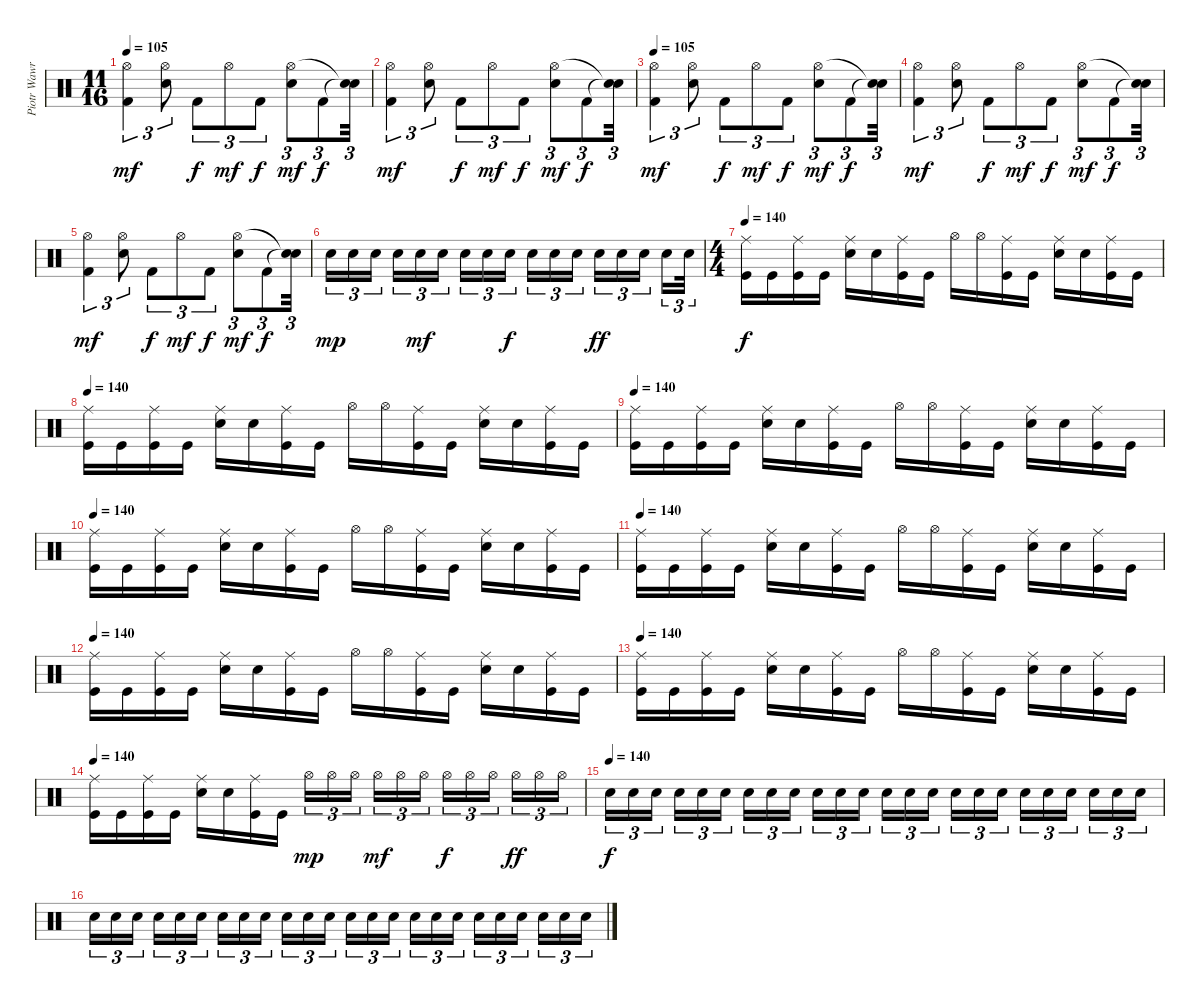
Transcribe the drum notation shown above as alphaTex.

\track ("Piotr Wawrzeniunk (drums)" "Piotr Wawr") {instrument percussion}
\staff {score}
\articulation defaults
\ts (11 16)
\tempo 105
\clef neutral
\ks c
("Kick (hit) 2" "Hi-Hat (open)").4{tu (3 2) dy mf} ("Electric Snare (hit)" "Hi-Hat (open)").8{tu (3 2)} "Kick (hit) 2".8{tu (3 2) dy f} "Hi-Hat (open)".8{tu (3 2) dy mf} "Kick (hit) 2".8{tu (3 2) dy f} ("Electric Snare (hit)" "Hi-Hat (open)").8{tu (3 2) dy mf} "Kick (hit) 2".8{tu (3 2) dy f} ("Snare (hit)"{t} "Snare (hit)"{t}).32{tu (3 2)} |
("Kick (hit) 2" "Hi-Hat (open)").4{tu (3 2) dy mf} ("Electric Snare (hit)" "Hi-Hat (open)").8{tu (3 2)} "Kick (hit) 2".8{tu (3 2) dy f} "Hi-Hat (open)".8{tu (3 2) dy mf} "Kick (hit) 2".8{tu (3 2) dy f} ("Electric Snare (hit)" "Hi-Hat (open)").8{tu (3 2) dy mf} "Kick (hit) 2".8{tu (3 2) dy f} ("Snare (hit)"{t} "Snare (hit)"{t}).32{tu (3 2)} |
\tempo 105
("Kick (hit) 2" "Hi-Hat (open)").4{tu (3 2) dy mf} ("Electric Snare (hit)" "Hi-Hat (open)").8{tu (3 2)} "Kick (hit) 2".8{tu (3 2) dy f} "Hi-Hat (open)".8{tu (3 2) dy mf} "Kick (hit) 2".8{tu (3 2) dy f} ("Electric Snare (hit)" "Hi-Hat (open)").8{tu (3 2) dy mf} "Kick (hit) 2".8{tu (3 2) dy f} ("Snare (hit)"{t} "Snare (hit)"{t}).32{tu (3 2)} |
("Kick (hit) 2" "Hi-Hat (open)").4{tu (3 2) dy mf} ("Electric Snare (hit)" "Hi-Hat (open)").8{tu (3 2)} "Kick (hit) 2".8{tu (3 2) dy f} "Hi-Hat (open)".8{tu (3 2) dy mf} "Kick (hit) 2".8{tu (3 2) dy f} ("Electric Snare (hit)" "Hi-Hat (open)").8{tu (3 2) dy mf} "Kick (hit) 2".8{tu (3 2) dy f} ("Snare (hit)"{t} "Snare (hit)"{t}).32{tu (3 2)} |
("Kick (hit) 2" "Hi-Hat (open)").4{tu (3 2) dy mf} ("Electric Snare (hit)" "Hi-Hat (open)").8{tu (3 2)} "Kick (hit) 2".8{tu (3 2) dy f} "Hi-Hat (open)".8{tu (3 2) dy mf} "Kick (hit) 2".8{tu (3 2) dy f} ("Electric Snare (hit)" "Hi-Hat (open)").8{tu (3 2) dy mf} "Kick (hit) 2".8{tu (3 2) dy f} ("Snare (hit)"{t} "Snare (hit)"{t}).32{tu (3 2)} |
"Electric Snare (hit)".16{tu (3 2) dy mp} "Electric Snare (hit)".16{tu (3 2)} "Electric Snare (hit)".16{tu (3 2)} "Electric Snare (hit)".16{tu (3 2)} "Electric Snare (hit)".16{tu (3 2) dy mf} "Electric Snare (hit)".16{tu (3 2)} "Electric Snare (hit)".16{tu (3 2)} "Electric Snare (hit)".16{tu (3 2)} "Electric Snare (hit)".16{tu (3 2) dy f} "Electric Snare (hit)".16{tu (3 2)} "Electric Snare (hit)".16{tu (3 2)} "Electric Snare (hit)".16{tu (3 2)} "Electric Snare (hit)".16{tu (3 2) dy ff} "Electric Snare (hit)".16{tu (3 2)} "Electric Snare (hit)".16{tu (3 2)} "Electric Snare (hit)".16{tu (3 2)} "Electric Snare (hit)".32{tu (3 2)} |
\ts (4 4)
\tempo 140
("Kick (hit)" "Ride (middle)").16{dy f} "Kick (hit)".16 ("Kick (hit)" "Ride (middle)").16 "Kick (hit)".16 ("Electric Snare (hit)" "Ride (middle)").16 "Electric Snare (hit)".16 ("Kick (hit)" "Ride (middle)").16 "Kick (hit)".16 "Hi-Hat (open)".16 "Hi-Hat (open)".16 ("Kick (hit)" "Ride (middle)").16 "Kick (hit)".16 ("Electric Snare (hit)" "Ride (middle)").16 "Electric Snare (hit)".16 ("Kick (hit)" "Ride (middle)").16 "Kick (hit)".16 |
\tempo 140
("Kick (hit)" "Ride (middle)").16 "Kick (hit)".16 ("Kick (hit)" "Ride (middle)").16 "Kick (hit)".16 ("Electric Snare (hit)" "Ride (middle)").16 "Electric Snare (hit)".16 ("Kick (hit)" "Ride (middle)").16 "Kick (hit)".16 "Hi-Hat (open)".16 "Hi-Hat (open)".16 ("Kick (hit)" "Ride (middle)").16 "Kick (hit)".16 ("Electric Snare (hit)" "Ride (middle)").16 "Electric Snare (hit)".16 ("Kick (hit)" "Ride (middle)").16 "Kick (hit)".16 |
\tempo 140
("Kick (hit)" "Ride (middle)").16 "Kick (hit)".16 ("Kick (hit)" "Ride (middle)").16 "Kick (hit)".16 ("Electric Snare (hit)" "Ride (middle)").16 "Electric Snare (hit)".16 ("Kick (hit)" "Ride (middle)").16 "Kick (hit)".16 "Hi-Hat (open)".16 "Hi-Hat (open)".16 ("Kick (hit)" "Ride (middle)").16 "Kick (hit)".16 ("Electric Snare (hit)" "Ride (middle)").16 "Electric Snare (hit)".16 ("Kick (hit)" "Ride (middle)").16 "Kick (hit)".16 |
\tempo 140
("Kick (hit)" "Ride (middle)").16 "Kick (hit)".16 ("Kick (hit)" "Ride (middle)").16 "Kick (hit)".16 ("Electric Snare (hit)" "Ride (middle)").16 "Electric Snare (hit)".16 ("Kick (hit)" "Ride (middle)").16 "Kick (hit)".16 "Hi-Hat (open)".16 "Hi-Hat (open)".16 ("Kick (hit)" "Ride (middle)").16 "Kick (hit)".16 ("Electric Snare (hit)" "Ride (middle)").16 "Electric Snare (hit)".16 ("Kick (hit)" "Ride (middle)").16 "Kick (hit)".16 |
\tempo 140
("Kick (hit)" "Ride (middle)").16 "Kick (hit)".16 ("Kick (hit)" "Ride (middle)").16 "Kick (hit)".16 ("Electric Snare (hit)" "Ride (middle)").16 "Electric Snare (hit)".16 ("Kick (hit)" "Ride (middle)").16 "Kick (hit)".16 "Hi-Hat (open)".16 "Hi-Hat (open)".16 ("Kick (hit)" "Ride (middle)").16 "Kick (hit)".16 ("Electric Snare (hit)" "Ride (middle)").16 "Electric Snare (hit)".16 ("Kick (hit)" "Ride (middle)").16 "Kick (hit)".16 |
\tempo 140
("Kick (hit)" "Ride (middle)").16 "Kick (hit)".16 ("Kick (hit)" "Ride (middle)").16 "Kick (hit)".16 ("Electric Snare (hit)" "Ride (middle)").16 "Electric Snare (hit)".16 ("Kick (hit)" "Ride (middle)").16 "Kick (hit)".16 "Hi-Hat (open)".16 "Hi-Hat (open)".16 ("Kick (hit)" "Ride (middle)").16 "Kick (hit)".16 ("Electric Snare (hit)" "Ride (middle)").16 "Electric Snare (hit)".16 ("Kick (hit)" "Ride (middle)").16 "Kick (hit)".16 |
\tempo 140
("Kick (hit)" "Ride (middle)").16 "Kick (hit)".16 ("Kick (hit)" "Ride (middle)").16 "Kick (hit)".16 ("Electric Snare (hit)" "Ride (middle)").16 "Electric Snare (hit)".16 ("Kick (hit)" "Ride (middle)").16 "Kick (hit)".16 "Hi-Hat (open)".16 "Hi-Hat (open)".16 ("Kick (hit)" "Ride (middle)").16 "Kick (hit)".16 ("Electric Snare (hit)" "Ride (middle)").16 "Electric Snare (hit)".16 ("Kick (hit)" "Ride (middle)").16 "Kick (hit)".16 |
\tempo 140
("Kick (hit)" "Ride (middle)").16 "Kick (hit)".16 ("Kick (hit)" "Ride (middle)").16 "Kick (hit)".16 ("Electric Snare (hit)" "Ride (middle)").16 "Electric Snare (hit)".16 ("Kick (hit)" "Ride (middle)").16 "Kick (hit)".16 "Hi-Hat (open)".16{tu (3 2) dy mp} "Hi-Hat (open)".16{tu (3 2)} "Hi-Hat (open)".16{tu (3 2)} "Hi-Hat (open)".16{tu (3 2) dy mf} "Hi-Hat (open)".16{tu (3 2)} "Hi-Hat (open)".16{tu (3 2)} "Hi-Hat (open)".16{tu (3 2) dy f} "Hi-Hat (open)".16{tu (3 2)} "Hi-Hat (open)".16{tu (3 2)} "Hi-Hat (open)".16{tu (3 2) dy ff} "Hi-Hat (open)".16{tu (3 2)} "Hi-Hat (open)".16{tu (3 2)} |
\tempo (140)
"Electric Snare (hit)".16{tu (3 2) dy f volume 11} "Electric Snare (hit)".16{tu (3 2)} "Electric Snare (hit)".16{tu (3 2)} "Electric Snare (hit)".16{tu (3 2)} "Electric Snare (hit)".16{tu (3 2)} "Electric Snare (hit)".16{tu (3 2)} "Electric Snare (hit)".16{tu (3 2)} "Electric Snare (hit)".16{tu (3 2)} "Electric Snare (hit)".16{tu (3 2)} "Electric Snare (hit)".16{tu (3 2)} "Electric Snare (hit)".16{tu (3 2)} "Electric Snare (hit)".16{tu (3 2)} "Electric Snare (hit)".16{tu (3 2)} "Electric Snare (hit)".16{tu (3 2)} "Electric Snare (hit)".16{tu (3 2)} "Electric Snare (hit)".16{tu (3 2)} "Electric Snare (hit)".16{tu (3 2)} "Electric Snare (hit)".16{tu (3 2)} "Electric Snare (hit)".16{tu (3 2)} "Electric Snare (hit)".16{tu (3 2)} "Electric Snare (hit)".16{tu (3 2)} "Electric Snare (hit)".16{tu (3 2)} "Electric Snare (hit)".16{tu (3 2)} "Electric Snare (hit)".16{tu (3 2)} |
"Electric Snare (hit)".16{tu (3 2)} "Electric Snare (hit)".16{tu (3 2)} "Electric Snare (hit)".16{tu (3 2)} "Electric Snare (hit)".16{tu (3 2)} "Electric Snare (hit)".16{tu (3 2)} "Electric Snare (hit)".16{tu (3 2)} "Electric Snare (hit)".16{tu (3 2)} "Electric Snare (hit)".16{tu (3 2)} "Electric Snare (hit)".16{tu (3 2)} "Electric Snare (hit)".16{tu (3 2)} "Electric Snare (hit)".16{tu (3 2)} "Electric Snare (hit)".16{tu (3 2)} "Electric Snare (hit)".16{tu (3 2)} "Electric Snare (hit)".16{tu (3 2)} "Electric Snare (hit)".16{tu (3 2)} "Electric Snare (hit)".16{tu (3 2)} "Electric Snare (hit)".16{tu (3 2)} "Electric Snare (hit)".16{tu (3 2)} "Electric Snare (hit)".16{tu (3 2)} "Electric Snare (hit)".16{tu (3 2)} "Electric Snare (hit)".16{tu (3 2)} "Electric Snare (hit)".16{tu (3 2)} "Electric Snare (hit)".16{tu (3 2)} "Electric Snare (hit)".16{tu (3 2)}
